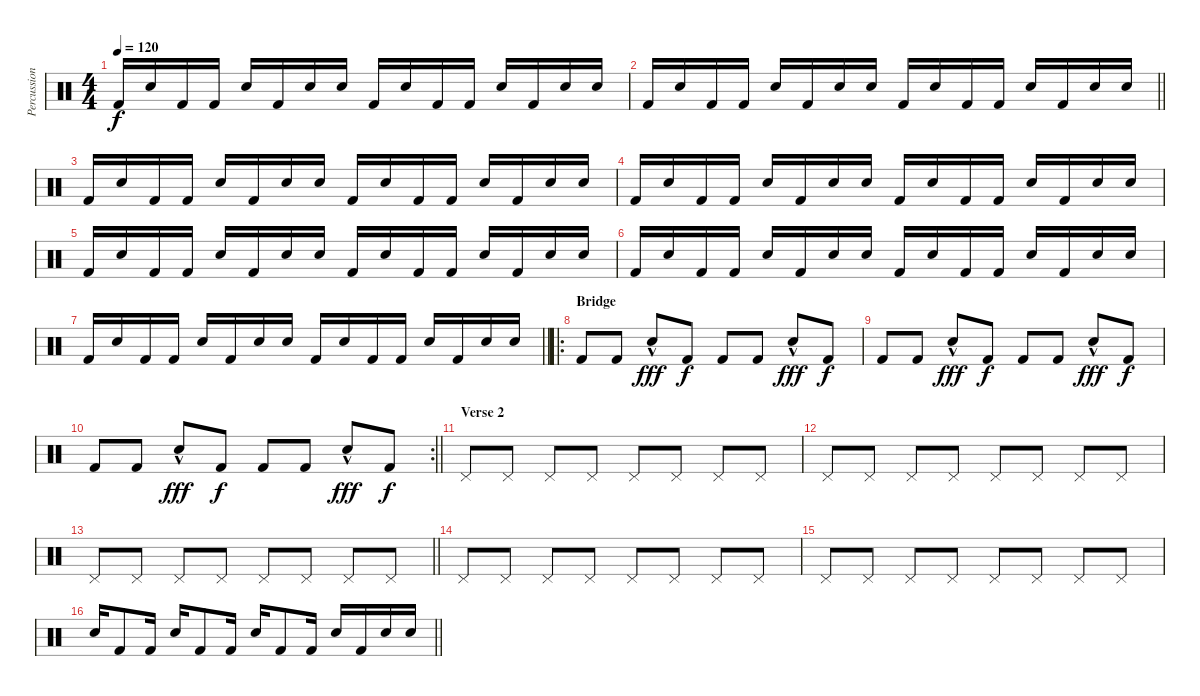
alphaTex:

\track ("Percussion" "Percussion") {instrument percussion}
\staff {score}
\articulation defaults
\ts (4 4)
\tempo 120
\clef neutral
\ks c "Kick (hit) 2".16{dy f} "Snare (hit) 2".16 "Kick (hit) 2".16 "Kick (hit) 2".16 "Snare (hit) 2".16 "Kick (hit) 2".16 "Snare (hit) 2".16 "Snare (hit) 2".16 "Kick (hit) 2".16 "Snare (hit) 2".16 "Kick (hit) 2".16 "Kick (hit) 2".16 "Snare (hit) 2".16 "Kick (hit) 2".16 "Snare (hit) 2".16 "Snare (hit) 2".16
|
\barLineRight lightlight "Kick (hit) 2".16 "Snare (hit) 2".16 "Kick (hit) 2".16 "Kick (hit) 2".16 "Snare (hit) 2".16 "Kick (hit) 2".16 "Snare (hit) 2".16 "Snare (hit) 2".16 "Kick (hit) 2".16 "Snare (hit) 2".16 "Kick (hit) 2".16 "Kick (hit) 2".16 "Snare (hit) 2".16 "Kick (hit) 2".16 "Snare (hit) 2".16 "Snare (hit) 2".16
|
"Kick (hit) 2".16 "Snare (hit) 2".16 "Kick (hit) 2".16 "Kick (hit) 2".16 "Snare (hit) 2".16 "Kick (hit) 2".16 "Snare (hit) 2".16 "Snare (hit) 2".16 "Kick (hit) 2".16 "Snare (hit) 2".16 "Kick (hit) 2".16 "Kick (hit) 2".16 "Snare (hit) 2".16 "Kick (hit) 2".16 "Snare (hit) 2".16 "Snare (hit) 2".16 |
"Kick (hit) 2".16 "Snare (hit) 2".16 "Kick (hit) 2".16 "Kick (hit) 2".16 "Snare (hit) 2".16 "Kick (hit) 2".16 "Snare (hit) 2".16 "Snare (hit) 2".16 "Kick (hit) 2".16 "Snare (hit) 2".16 "Kick (hit) 2".16 "Kick (hit) 2".16 "Snare (hit) 2".16 "Kick (hit) 2".16 "Snare (hit) 2".16 "Snare (hit) 2".16 |
"Kick (hit) 2".16 "Snare (hit) 2".16 "Kick (hit) 2".16 "Kick (hit) 2".16 "Snare (hit) 2".16 "Kick (hit) 2".16 "Snare (hit) 2".16 "Snare (hit) 2".16 "Kick (hit) 2".16 "Snare (hit) 2".16 "Kick (hit) 2".16 "Kick (hit) 2".16 "Snare (hit) 2".16 "Kick (hit) 2".16 "Snare (hit) 2".16 "Snare (hit) 2".16 |
"Kick (hit) 2".16 "Snare (hit) 2".16 "Kick (hit) 2".16 "Kick (hit) 2".16 "Snare (hit) 2".16 "Kick (hit) 2".16 "Snare (hit) 2".16 "Snare (hit) 2".16 "Kick (hit) 2".16 "Snare (hit) 2".16 "Kick (hit) 2".16 "Kick (hit) 2".16 "Snare (hit) 2".16 "Kick (hit) 2".16 "Snare (hit) 2".16 "Snare (hit) 2".16 |
\barLineRight lightlight "Kick (hit) 2".16 "Snare (hit) 2".16 "Kick (hit) 2".16 "Kick (hit) 2".16 "Snare (hit) 2".16 "Kick (hit) 2".16 "Snare (hit) 2".16 "Snare (hit) 2".16 "Kick (hit) 2".16 "Snare (hit) 2".16 "Kick (hit) 2".16 "Kick (hit) 2".16 "Snare (hit) 2".16 "Kick (hit) 2".16 "Snare (hit) 2".16 "Snare (hit) 2".16
|
\ro
\section ("" "Bridge")
"Kick (hit) 2".8 "Kick (hit) 2".8 "Snare (hit) 2"{hac}.8{dy fff} "Kick (hit) 2".8{dy f} "Kick (hit) 2".8 "Kick (hit) 2".8 "Snare (hit) 2"{hac}.8{dy fff} "Kick (hit) 2".8{dy f} |
"Kick (hit) 2".8 "Kick (hit) 2".8 "Snare (hit) 2"{hac}.8{dy fff} "Kick (hit) 2".8{dy f} "Kick (hit) 2".8 "Kick (hit) 2".8 "Snare (hit) 2"{hac}.8{dy fff} "Kick (hit) 2".8{dy f} |
\rc 2
\barLineRight lightlight "Kick (hit) 2".8 "Kick (hit) 2".8 "Snare (hit) 2"{hac}.8{dy fff} "Kick (hit) 2".8{dy f} "Kick (hit) 2".8 "Kick (hit) 2".8 "Snare (hit) 2"{hac}.8{dy fff} "Kick (hit) 2".8{dy f}
|
\section ("" "Verse 2")
"Pedal Hi-Hat (hit)".8 "Pedal Hi-Hat (hit)".8 "Pedal Hi-Hat (hit)".8 "Pedal Hi-Hat (hit)".8 "Pedal Hi-Hat (hit)".8 "Pedal Hi-Hat (hit)".8 "Pedal Hi-Hat (hit)".8 "Pedal Hi-Hat (hit)".8 |
"Pedal Hi-Hat (hit)".8 "Pedal Hi-Hat (hit)".8 "Pedal Hi-Hat (hit)".8 "Pedal Hi-Hat (hit)".8 "Pedal Hi-Hat (hit)".8 "Pedal Hi-Hat (hit)".8 "Pedal Hi-Hat (hit)".8 "Pedal Hi-Hat (hit)".8 |
\barLineRight lightlight "Pedal Hi-Hat (hit)".8 "Pedal Hi-Hat (hit)".8 "Pedal Hi-Hat (hit)".8 "Pedal Hi-Hat (hit)".8 "Pedal Hi-Hat (hit)".8 "Pedal Hi-Hat (hit)".8 "Pedal Hi-Hat (hit)".8 "Pedal Hi-Hat (hit)".8
|
"Pedal Hi-Hat (hit)".8 "Pedal Hi-Hat (hit)".8 "Pedal Hi-Hat (hit)".8 "Pedal Hi-Hat (hit)".8 "Pedal Hi-Hat (hit)".8 "Pedal Hi-Hat (hit)".8 "Pedal Hi-Hat (hit)".8 "Pedal Hi-Hat (hit)".8 |
"Pedal Hi-Hat (hit)".8 "Pedal Hi-Hat (hit)".8 "Pedal Hi-Hat (hit)".8 "Pedal Hi-Hat (hit)".8 "Pedal Hi-Hat (hit)".8 "Pedal Hi-Hat (hit)".8 "Pedal Hi-Hat (hit)".8 "Pedal Hi-Hat (hit)".8 |
\barLineRight lightlight "Snare (hit) 2".16 "Kick (hit) 2".8 "Kick (hit) 2".16 "Snare (hit) 2".16 "Kick (hit) 2".8 "Kick (hit) 2".16 "Snare (hit) 2".16 "Kick (hit) 2".8 "Kick (hit) 2".16 "Snare (hit) 2".16 "Kick (hit) 2".16 "Snare (hit) 2".16 "Snare (hit) 2".16
